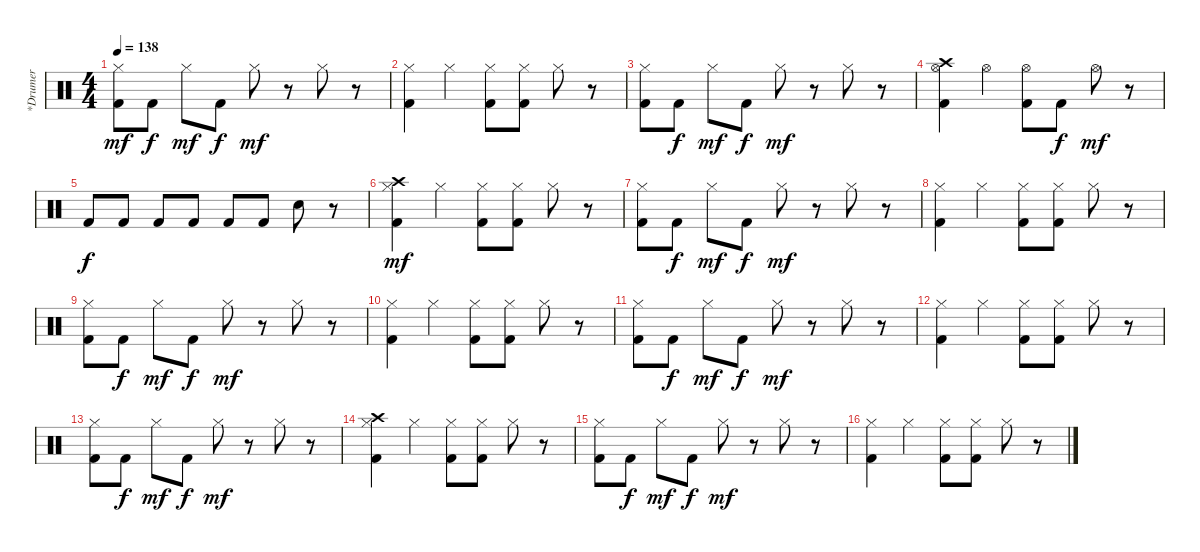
\track ("*Drumer" "*Drumer") {instrument percussion}
\staff {score}
\articulation defaults
\ts (4 4)
\tempo 138
\clef neutral
\ks c
("Hi-Hat (closed)" "Kick (hit) 2").8{dy mf} "Kick (hit) 2".8{dy f} "Hi-Hat (closed)".8{dy mf} "Kick (hit) 2".8{dy f} "Hi-Hat (closed)".8{dy mf} r.8 "Hi-Hat (closed)".8 r.8 |
("Hi-Hat (closed)" "Kick (hit) 2").4 "Hi-Hat (closed)".4 ("Hi-Hat (closed)" "Kick (hit) 2").8 ("Hi-Hat (closed)" "Kick (hit) 2").8 "Hi-Hat (closed)".8 r.8 |
("Hi-Hat (closed)" "Kick (hit) 2").8 "Kick (hit) 2".8{dy f} "Hi-Hat (closed)".8{dy mf} "Kick (hit) 2".8{dy f} "Hi-Hat (closed)".8{dy mf} r.8 "Hi-Hat (closed)".8 r.8 |
("Crash high (hit)" "Hi-Hat (open)" "Kick (hit) 2").4 "Hi-Hat (open)".4 ("Hi-Hat (open)" "Kick (hit) 2").8 "Kick (hit) 2".8{dy f} "Hi-Hat (open)".8{dy mf} r.8 |
"Kick (hit) 2".8{dy f} "Kick (hit) 2".8 "Kick (hit) 2".8 "Kick (hit) 2".8 "Kick (hit) 2".8 "Kick (hit) 2".8 "Electric Snare (hit)".8 r.8 |
("Crash high (hit)" "Hi-Hat (closed)" "Kick (hit) 2").4{dy mf} "Hi-Hat (closed)".4 ("Hi-Hat (closed)" "Kick (hit) 2").8 ("Hi-Hat (closed)" "Kick (hit) 2").8 "Hi-Hat (closed)".8 r.8 |
("Hi-Hat (closed)" "Kick (hit) 2").8 "Kick (hit) 2".8{dy f} "Hi-Hat (closed)".8{dy mf} "Kick (hit) 2".8{dy f} "Hi-Hat (closed)".8{dy mf} r.8 "Hi-Hat (closed)".8 r.8 |
("Hi-Hat (closed)" "Kick (hit) 2").4 "Hi-Hat (closed)".4 ("Hi-Hat (closed)" "Kick (hit) 2").8 ("Hi-Hat (closed)" "Kick (hit) 2").8 "Hi-Hat (closed)".8 r.8 |
("Hi-Hat (closed)" "Kick (hit) 2").8 "Kick (hit) 2".8{dy f} "Hi-Hat (closed)".8{dy mf} "Kick (hit) 2".8{dy f} "Hi-Hat (closed)".8{dy mf} r.8 "Hi-Hat (closed)".8 r.8 |
("Hi-Hat (closed)" "Kick (hit) 2").4 "Hi-Hat (closed)".4 ("Hi-Hat (closed)" "Kick (hit) 2").8 ("Hi-Hat (closed)" "Kick (hit) 2").8 "Hi-Hat (closed)".8 r.8 |
("Hi-Hat (closed)" "Kick (hit) 2").8 "Kick (hit) 2".8{dy f} "Hi-Hat (closed)".8{dy mf} "Kick (hit) 2".8{dy f} "Hi-Hat (closed)".8{dy mf} r.8 "Hi-Hat (closed)".8 r.8 |
("Hi-Hat (closed)" "Kick (hit) 2").4 "Hi-Hat (closed)".4 ("Hi-Hat (closed)" "Kick (hit) 2").8 ("Hi-Hat (closed)" "Kick (hit) 2").8 "Hi-Hat (closed)".8 r.8 |
("Hi-Hat (closed)" "Kick (hit) 2").8 "Kick (hit) 2".8{dy f} "Hi-Hat (closed)".8{dy mf} "Kick (hit) 2".8{dy f} "Hi-Hat (closed)".8{dy mf} r.8 "Hi-Hat (closed)".8 r.8 |
("Crash high (hit)" "Hi-Hat (closed)" "Kick (hit) 2").4 "Hi-Hat (closed)".4 ("Hi-Hat (closed)" "Kick (hit) 2").8 ("Hi-Hat (closed)" "Kick (hit) 2").8 "Hi-Hat (closed)".8 r.8 |
("Hi-Hat (closed)" "Kick (hit) 2").8 "Kick (hit) 2".8{dy f} "Hi-Hat (closed)".8{dy mf} "Kick (hit) 2".8{dy f} "Hi-Hat (closed)".8{dy mf} r.8 "Hi-Hat (closed)".8 r.8 |
("Hi-Hat (closed)" "Kick (hit) 2").4 "Hi-Hat (closed)".4 ("Hi-Hat (closed)" "Kick (hit) 2").8 ("Hi-Hat (closed)" "Kick (hit) 2").8 "Hi-Hat (closed)".8 r.8
